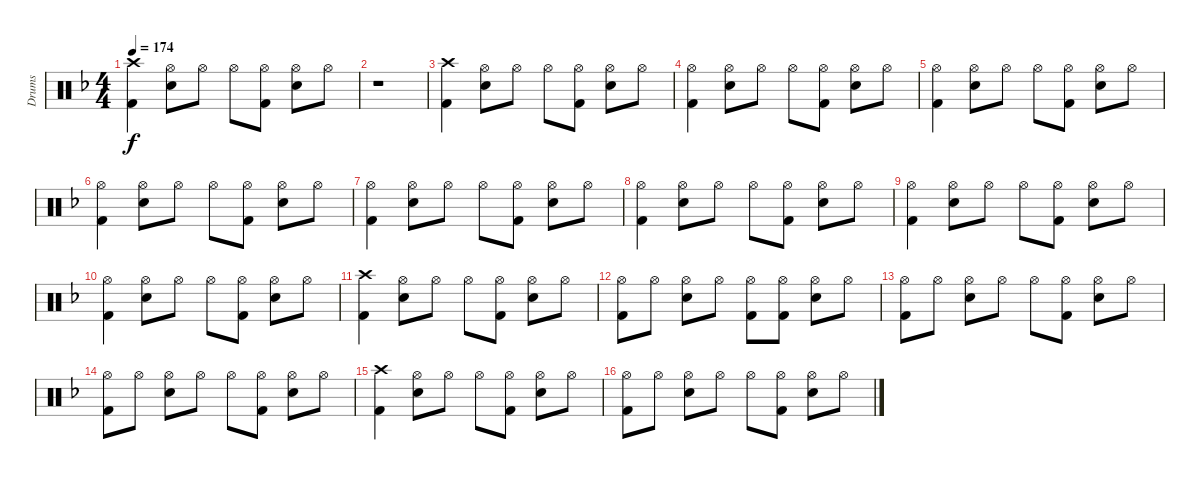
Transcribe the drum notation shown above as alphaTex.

\track ("Drums" "Drums") {instrument percussion}
\staff {score}
\articulation defaults
\ts (4 4)
\tempo 174
\clef neutral
\ks dminor
("Kick (hit) 2" "Crash high (hit)").4{dy f} ("Snare (hit) 2" "Hi-Hat (open)").8 "Hi-Hat (open)".8 "Hi-Hat (open)".8 ("Kick (hit) 2" "Hi-Hat (open)").8 ("Snare (hit) 2" "Hi-Hat (open)").8 "Hi-Hat (open)".8 |
r.1 |
("Kick (hit) 2" "Crash high (hit)").4 ("Snare (hit) 2" "Hi-Hat (open)").8 "Hi-Hat (open)".8 "Hi-Hat (open)".8 ("Kick (hit) 2" "Hi-Hat (open)").8 ("Snare (hit) 2" "Hi-Hat (open)").8 "Hi-Hat (open)".8 |
("Kick (hit) 2" "Hi-Hat (open)").4 ("Snare (hit) 2" "Hi-Hat (open)").8 "Hi-Hat (open)".8 "Hi-Hat (open)".8 ("Kick (hit) 2" "Hi-Hat (open)").8 ("Snare (hit) 2" "Hi-Hat (open)").8 "Hi-Hat (open)".8 |
("Kick (hit) 2" "Hi-Hat (open)").4 ("Snare (hit) 2" "Hi-Hat (open)").8 "Hi-Hat (open)".8 "Hi-Hat (open)".8 ("Kick (hit) 2" "Hi-Hat (open)").8 ("Snare (hit) 2" "Hi-Hat (open)").8 "Hi-Hat (open)".8 |
("Kick (hit) 2" "Hi-Hat (open)").4 ("Snare (hit) 2" "Hi-Hat (open)").8 "Hi-Hat (open)".8 "Hi-Hat (open)".8 ("Kick (hit) 2" "Hi-Hat (open)").8 ("Snare (hit) 2" "Hi-Hat (open)").8 "Hi-Hat (open)".8 |
("Kick (hit) 2" "Hi-Hat (open)").4 ("Snare (hit) 2" "Hi-Hat (open)").8 "Hi-Hat (open)".8 "Hi-Hat (open)".8 ("Kick (hit) 2" "Hi-Hat (open)").8 ("Snare (hit) 2" "Hi-Hat (open)").8 "Hi-Hat (open)".8 |
("Kick (hit) 2" "Hi-Hat (open)").4 ("Snare (hit) 2" "Hi-Hat (open)").8 "Hi-Hat (open)".8 "Hi-Hat (open)".8 ("Kick (hit) 2" "Hi-Hat (open)").8 ("Snare (hit) 2" "Hi-Hat (open)").8 "Hi-Hat (open)".8 |
("Kick (hit) 2" "Hi-Hat (open)").4 ("Snare (hit) 2" "Hi-Hat (open)").8 "Hi-Hat (open)".8 "Hi-Hat (open)".8 ("Kick (hit) 2" "Hi-Hat (open)").8 ("Snare (hit) 2" "Hi-Hat (open)").8 "Hi-Hat (open)".8 |
("Kick (hit) 2" "Hi-Hat (open)").4 ("Snare (hit) 2" "Hi-Hat (open)").8 "Hi-Hat (open)".8 "Hi-Hat (open)".8 ("Kick (hit) 2" "Hi-Hat (open)").8 ("Snare (hit) 2" "Hi-Hat (open)").8 "Hi-Hat (open)".8 |
("Kick (hit) 2" "Crash high (hit)").4 ("Snare (hit) 2" "Hi-Hat (open)").8 "Hi-Hat (open)".8 "Hi-Hat (open)".8 ("Kick (hit) 2" "Hi-Hat (open)").8 ("Snare (hit) 2" "Hi-Hat (open)").8 "Hi-Hat (open)".8 |
("Kick (hit) 2" "Hi-Hat (open)").8 "Hi-Hat (open)".8 ("Snare (hit) 2" "Hi-Hat (open)").8 "Hi-Hat (open)".8 ("Kick (hit) 2" "Hi-Hat (open)").8 ("Kick (hit) 2" "Hi-Hat (open)").8 ("Snare (hit) 2" "Hi-Hat (open)").8 "Hi-Hat (open)".8 |
("Kick (hit) 2" "Hi-Hat (open)").8 "Hi-Hat (open)".8 ("Snare (hit) 2" "Hi-Hat (open)").8 "Hi-Hat (open)".8 "Hi-Hat (open)".8 ("Kick (hit) 2" "Hi-Hat (open)").8 ("Snare (hit) 2" "Hi-Hat (open)").8 "Hi-Hat (open)".8 |
("Kick (hit) 2" "Hi-Hat (open)").8 "Hi-Hat (open)".8 ("Snare (hit) 2" "Hi-Hat (open)").8 "Hi-Hat (open)".8 "Hi-Hat (open)".8 ("Kick (hit) 2" "Hi-Hat (open)").8 ("Snare (hit) 2" "Hi-Hat (open)").8 "Hi-Hat (open)".8 |
("Kick (hit) 2" "Crash high (hit)").4 ("Snare (hit) 2" "Hi-Hat (open)").8 "Hi-Hat (open)".8 "Hi-Hat (open)".8 ("Kick (hit) 2" "Hi-Hat (open)").8 ("Snare (hit) 2" "Hi-Hat (open)").8 "Hi-Hat (open)".8 |
("Kick (hit) 2" "Hi-Hat (open)").8 "Hi-Hat (open)".8 ("Snare (hit) 2" "Hi-Hat (open)").8 "Hi-Hat (open)".8 "Hi-Hat (open)".8 ("Kick (hit) 2" "Hi-Hat (open)").8 ("Snare (hit) 2" "Hi-Hat (open)").8 "Hi-Hat (open)".8
